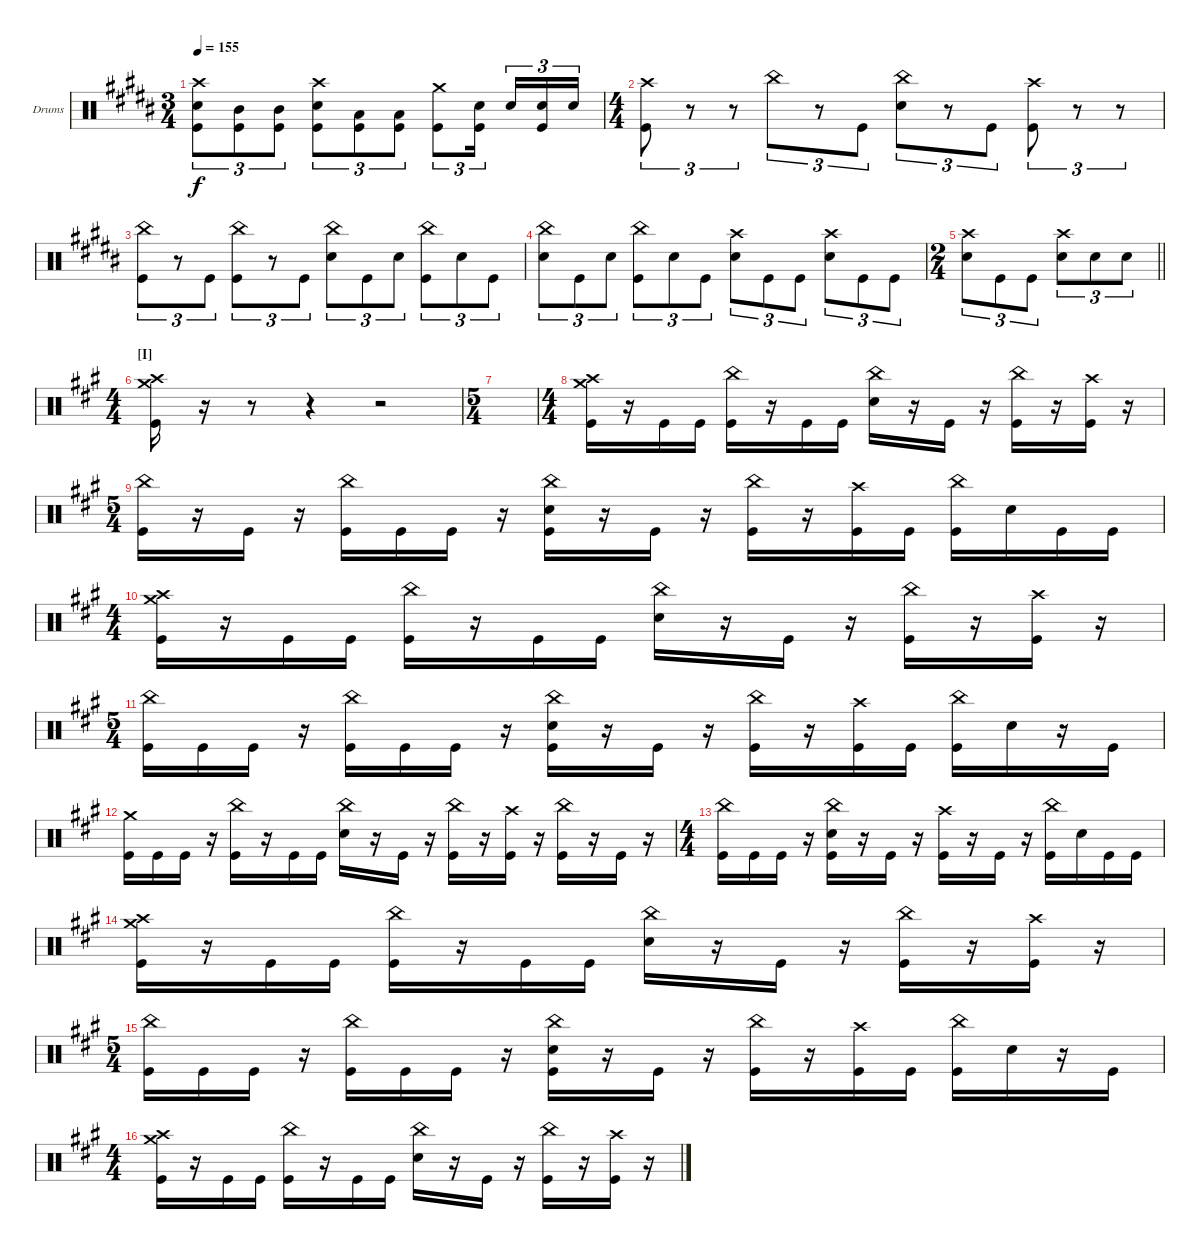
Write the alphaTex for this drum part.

\bracketExtendMode groupsimilarinstruments
\firstSystemTrackNameOrientation horizontal
\otherSystemsTrackNameOrientation horizontal
\track ("Drumkit" "Drums") {instrument percussion}
\staff {score}
\articulation defaults
\ts (3 4)
\tempo 155
\clef neutral
\ks b
("Crash high (hit)" "Snare (hit) 2" "Kick (hit)").8{tu (3 2) dy f} ("Mid Tom (hit)" "Kick (hit)").8{tu (3 2)} ("Mid Tom (hit)" "Kick (hit)").8{tu (3 2)} ("Crash high (hit)" "Snare (hit) 2" "Kick (hit)").8{tu (3 2)} ("Low Tom (hit)" "Kick (hit)").8{tu (3 2)} ("Low Tom (hit)" "Kick (hit)").8{tu (3 2)} ("Crash medium (hit)" "Kick (hit)").8{tu (3 2)} ("Snare (hit) 2" "Kick (hit)").16{tu (3 2)} "Snare (hit) 2".16{tu (3 2)} ("Snare (hit) 2" "Kick (hit)").16{tu (3 2)} "Snare (hit) 2".16{tu (3 2)} |
\ts (4 4)
("Crash high (hit)" "Kick (hit)").8{tu (3 2)} r.8{tu (3 2)} r.8{tu (3 2)} "China (hit)".8{tu (3 2)} r.8{tu (3 2)} "Kick (hit)".8{tu (3 2)} ("China (hit)" "Snare (hit) 2").8{tu (3 2)} r.8{tu (3 2)} "Kick (hit)".8{tu (3 2)} ("Crash high (hit)" "Kick (hit)").8{tu (3 2)} r.8{tu (3 2)} r.8{tu (3 2)} |
("China (hit)" "Kick (hit)").8{tu (3 2)} r.8{tu (3 2)} "Kick (hit)".8{tu (3 2)} ("China (hit)" "Kick (hit)").8{tu (3 2)} r.8{tu (3 2)} "Kick (hit)".8{tu (3 2)} ("China (hit)" "Snare (hit) 2").8{tu (3 2)} "Kick (hit)".8{tu (3 2)} "Snare (hit) 2".8{tu (3 2)} ("China (hit)" "Kick (hit)").8{tu (3 2)} "Snare (hit) 2".8{tu (3 2)} "Kick (hit)".8{tu (3 2)} |
("China (hit)" "Snare (hit) 2").8{tu (3 2)} "Kick (hit)".8{tu (3 2)} "Snare (hit) 2".8{tu (3 2)} ("China (hit)" "Kick (hit)").8{tu (3 2)} "Snare (hit) 2".8{tu (3 2)} "Kick (hit)".8{tu (3 2)} ("Crash high (hit)" "Snare (hit) 2").8{tu (3 2)} "Kick (hit)".8{tu (3 2)} "Kick (hit)".8{tu (3 2)} ("Crash high (hit)" "Snare (hit) 2").8{tu (3 2)} "Kick (hit)".8{tu (3 2)} "Kick (hit)".8{tu (3 2)} |
\ts (2 4)
\barLineRight lightlight
("Crash high (hit)" "Snare (hit) 2").8{tu (3 2)} "Kick (hit)".8{tu (3 2)} "Kick (hit)".8{tu (3 2)} ("Crash high (hit)" "Snare (hit) 2").8{tu (3 2)} "Snare (hit) 2".8{tu (3 2)} "Snare (hit) 2".8{tu (3 2)} |
\ts (4 4)
\section ("I" "")
\ks a
("Crash medium (hit)" "Crash high (hit)" "Kick (hit)").16 r.16 r.8 r.4 r.2 |
\ts (5 4)
|
\ts (4 4)
("Crash medium (hit)" "Crash high (hit)" "Kick (hit)").16 r.16 "Kick (hit)".16 "Kick (hit)".16 ("China (hit)" "Kick (hit)").16 r.16 "Kick (hit)".16 "Kick (hit)".16 ("China (hit)" "Snare (hit) 2").16 r.16 "Kick (hit)".16 r.16 ("China (hit)" "Kick (hit)").16 r.16 ("Crash high (hit)" "Kick (hit)").16 r.16 |
\ts (5 4)
("China (hit)" "Kick (hit)").16 r.16 "Kick (hit)".16 r.16 ("China (hit)" "Kick (hit)").16 "Kick (hit)".16 "Kick (hit)".16 r.16 ("China (hit)" "Snare (hit) 2" "Kick (hit)").16 r.16 "Kick (hit)".16 r.16 ("China (hit)" "Kick (hit)").16 r.16 ("Crash high (hit)" "Kick (hit)").16 "Kick (hit)".16 ("China (hit)" "Kick (hit)").16 "Snare (hit) 2".16 "Kick (hit)".16 "Kick (hit)".16 |
\ts (4 4)
("Crash medium (hit)" "Crash high (hit)" "Kick (hit)").16 r.16 "Kick (hit)".16 "Kick (hit)".16 ("China (hit)" "Kick (hit)").16 r.16 "Kick (hit)".16 "Kick (hit)".16 ("China (hit)" "Snare (hit) 2").16 r.16 "Kick (hit)".16 r.16 ("China (hit)" "Kick (hit)").16 r.16 ("Crash high (hit)" "Kick (hit)").16 r.16 |
\ts (5 4)
("China (hit)" "Kick (hit)").16 "Kick (hit)".16 "Kick (hit)".16 r.16 ("China (hit)" "Kick (hit)").16 "Kick (hit)".16 "Kick (hit)".16 r.16 ("China (hit)" "Snare (hit) 2" "Kick (hit)").16 r.16 "Kick (hit)".16 r.16 ("China (hit)" "Kick (hit)").16 r.16 ("Crash high (hit)" "Kick (hit)").16 "Kick (hit)".16 ("China (hit)" "Kick (hit)").16 "Snare (hit) 2".16 r.16 "Kick (hit)".16 |
("Crash medium (hit)" "Kick (hit)").16 "Kick (hit)".16 "Kick (hit)".16 r.16 ("China (hit)" "Kick (hit)").16 r.16 "Kick (hit)".16 "Kick (hit)".16 ("China (hit)" "Snare (hit) 2").16 r.16 "Kick (hit)".16 r.16 ("China (hit)" "Kick (hit)").16 r.16 ("Crash high (hit)" "Kick (hit)").16 r.16 ("China (hit)" "Kick (hit)").16 r.16 "Kick (hit)".16 r.16 |
\ts (4 4)
("China (hit)" "Kick (hit)").16 "Kick (hit)".16 "Kick (hit)".16 r.16 ("China (hit)" "Snare (hit) 2" "Kick (hit)").16 r.16 "Kick (hit)".16 r.16 ("Crash high (hit)" "Kick (hit)").16 r.16 "Kick (hit)".16 r.16 ("China (hit)" "Kick (hit)").16 "Snare (hit) 2".16 "Kick (hit)".16 "Kick (hit)".16 |
("Crash medium (hit)" "Crash high (hit)" "Kick (hit)").16 r.16 "Kick (hit)".16 "Kick (hit)".16 ("China (hit)" "Kick (hit)").16 r.16 "Kick (hit)".16 "Kick (hit)".16 ("China (hit)" "Snare (hit) 2").16 r.16 "Kick (hit)".16 r.16 ("China (hit)" "Kick (hit)").16 r.16 ("Crash high (hit)" "Kick (hit)").16 r.16 |
\ts (5 4)
("China (hit)" "Kick (hit)").16 "Kick (hit)".16 "Kick (hit)".16 r.16 ("China (hit)" "Kick (hit)").16 "Kick (hit)".16 "Kick (hit)".16 r.16 ("China (hit)" "Snare (hit) 2" "Kick (hit)").16 r.16 "Kick (hit)".16 r.16 ("China (hit)" "Kick (hit)").16 r.16 ("Crash high (hit)" "Kick (hit)").16 "Kick (hit)".16 ("China (hit)" "Kick (hit)").16 "Snare (hit) 2".16 r.16 "Kick (hit)".16 |
\ts (4 4)
("Crash medium (hit)" "Crash high (hit)" "Kick (hit)").16 r.16 "Kick (hit)".16 "Kick (hit)".16 ("China (hit)" "Kick (hit)").16 r.16 "Kick (hit)".16 "Kick (hit)".16 ("China (hit)" "Snare (hit) 2").16 r.16 "Kick (hit)".16 r.16 ("China (hit)" "Kick (hit)").16 r.16 ("Crash high (hit)" "Kick (hit)").16 r.16
